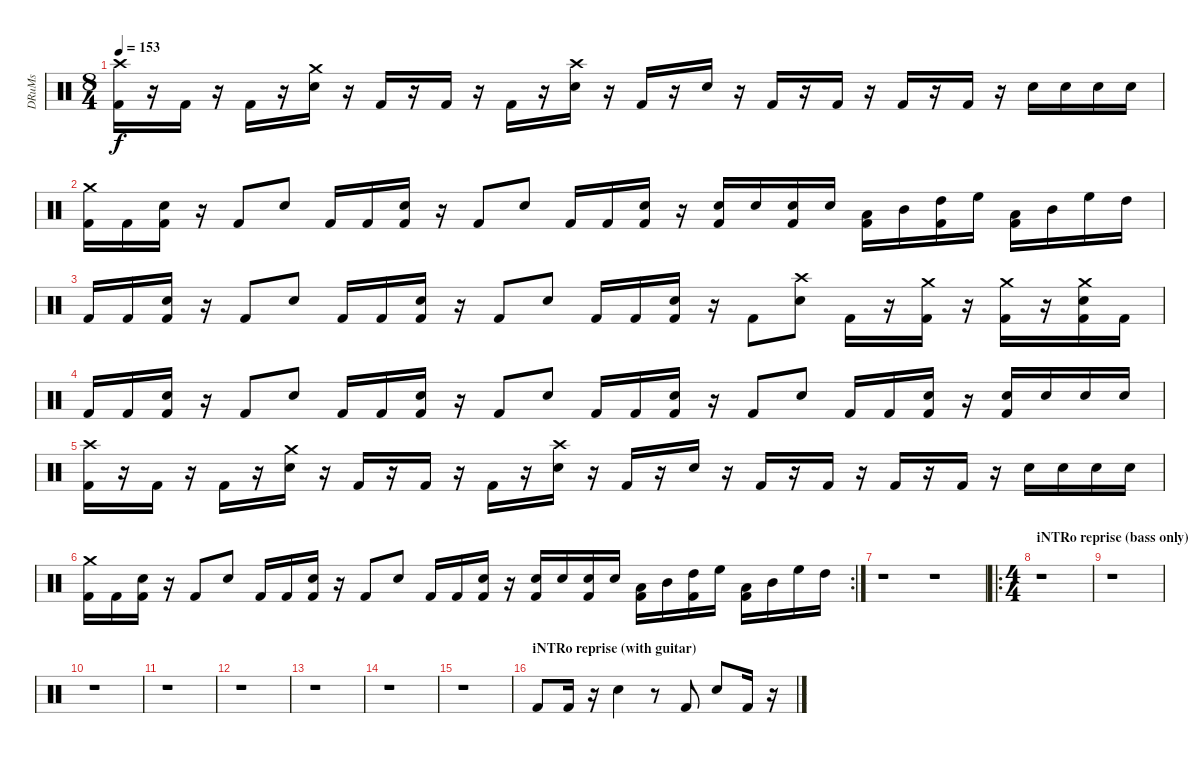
\track ("DRuMs" "DRuMs") {instrument percussion}
\staff {score}
\articulation defaults
\ts (8 4)
\tempo 153
\clef neutral
\ks c
("Crash high (hit)" "Kick (hit) 2").16{dy f} r.16 "Kick (hit) 2".16 r.16 "Kick (hit) 2".16 r.16 ("Crash medium (hit)" "Electric Snare (hit)").16 r.16 "Kick (hit) 2".16 r.16 "Kick (hit) 2".16 r.16 "Kick (hit) 2".16 r.16 ("Crash high (hit)" "Electric Snare (hit)").16 r.16 "Kick (hit) 2".16 r.16 "Electric Snare (hit)".16 r.16 "Kick (hit) 2".16 r.16 "Kick (hit) 2".16 r.16 "Kick (hit) 2".16 r.16 "Kick (hit) 2".16 r.16 "Metronome (bell)".16 "Metronome (bell)".16 "Metronome (bell)".16 "Metronome (bell)".16 |
("Crash medium (hit)" "Kick (hit) 2").16 "Kick (hit) 2".16 ("Electric Snare (hit)" "Kick (hit) 2").16 r.16 "Kick (hit) 2".8 "Electric Snare (hit)".8 "Kick (hit) 2".16 "Kick (hit) 2".16 ("Electric Snare (hit)" "Kick (hit) 2").16 r.16 "Kick (hit) 2".8 "Electric Snare (hit)".8 "Kick (hit) 2".16 "Kick (hit) 2".16 ("Electric Snare (hit)" "Kick (hit) 2").16 r.16 ("Metronome (bell)" "Kick (hit) 2").16 "Metronome (bell)".16 ("Metronome (bell)" "Kick (hit) 2").16 "Metronome (bell)".16 ("Low Tom (hit)" "Kick (hit) 2").16 "Mid Tom (hit)".16 ("High Tom (hit)" "Kick (hit) 2").16 "High Floor Tom (hit)".16 ("Low Tom (hit)" "Kick (hit) 2").16 "Mid Tom (hit)".16 "High Floor Tom (hit)".16 "High Tom (hit)".16 |
"Kick (hit) 2".16 "Kick (hit) 2".16 ("Electric Snare (hit)" "Kick (hit) 2").16 r.16 "Kick (hit) 2".8 "Electric Snare (hit)".8 "Kick (hit) 2".16 "Kick (hit) 2".16 ("Electric Snare (hit)" "Kick (hit) 2").16 r.16 "Kick (hit) 2".8 "Electric Snare (hit)".8 "Kick (hit) 2".16 "Kick (hit) 2".16 ("Electric Snare (hit)" "Kick (hit) 2").16 r.16 "Kick (hit) 2".8 ("Crash high (hit)" "Electric Snare (hit)").8 "Kick (hit) 2".16 r.16 ("Crash medium (hit)" "Kick (hit) 2").16 r.16 ("Crash medium (hit)" "Kick (hit) 2").16 r.16 ("Crash medium (hit)" "Electric Snare (hit)" "Kick (hit) 2").16 "Kick (hit) 2".16 |
"Kick (hit) 2".16 "Kick (hit) 2".16 ("Electric Snare (hit)" "Kick (hit) 2").16 r.16 "Kick (hit) 2".8 "Electric Snare (hit)".8 "Kick (hit) 2".16 "Kick (hit) 2".16 ("Electric Snare (hit)" "Kick (hit) 2").16 r.16 "Kick (hit) 2".8 "Electric Snare (hit)".8 "Kick (hit) 2".16 "Kick (hit) 2".16 ("Electric Snare (hit)" "Kick (hit) 2").16 r.16 "Kick (hit) 2".8 "Electric Snare (hit)".8 "Kick (hit) 2".16 "Kick (hit) 2".16 ("Electric Snare (hit)" "Kick (hit) 2").16 r.16 ("Metronome (bell)" "Kick (hit) 2").16 "Metronome (bell)".16 "Metronome (bell)".16 "Metronome (bell)".16 |
("Crash high (hit)" "Kick (hit) 2").16 r.16 "Kick (hit) 2".16 r.16 "Kick (hit) 2".16 r.16 ("Crash medium (hit)" "Electric Snare (hit)").16 r.16 "Kick (hit) 2".16 r.16 "Kick (hit) 2".16 r.16 "Kick (hit) 2".16 r.16 ("Crash high (hit)" "Electric Snare (hit)").16 r.16 "Kick (hit) 2".16 r.16 "Electric Snare (hit)".16 r.16 "Kick (hit) 2".16 r.16 "Kick (hit) 2".16 r.16 "Kick (hit) 2".16 r.16 "Kick (hit) 2".16 r.16 "Metronome (bell)".16 "Metronome (bell)".16 "Metronome (bell)".16 "Metronome (bell)".16 |
\rc 2
("Crash medium (hit)" "Kick (hit) 2").16 "Kick (hit) 2".16 ("Electric Snare (hit)" "Kick (hit) 2").16 r.16 "Kick (hit) 2".8 "Electric Snare (hit)".8 "Kick (hit) 2".16 "Kick (hit) 2".16 ("Electric Snare (hit)" "Kick (hit) 2").16 r.16 "Kick (hit) 2".8 "Electric Snare (hit)".8 "Kick (hit) 2".16 "Kick (hit) 2".16 ("Electric Snare (hit)" "Kick (hit) 2").16 r.16 ("Metronome (bell)" "Kick (hit) 2").16 "Metronome (bell)".16 ("Metronome (bell)" "Kick (hit) 2").16 "Metronome (bell)".16 ("Low Tom (hit)" "Kick (hit) 2").16 "Mid Tom (hit)".16 ("High Tom (hit)" "Kick (hit) 2").16 "High Floor Tom (hit)".16 ("Low Tom (hit)" "Kick (hit) 2").16 "Mid Tom (hit)".16 "High Floor Tom (hit)".16 "High Tom (hit)".16 |
r.1 r.1 |
\ro
\ts (4 4)
\section ("" "iNTRo reprise (bass only)")
r.1 |
r.1 |
r.1 |
r.1 |
r.1 |
r.1 |
r.1 |
r.1 |
\section ("" "iNTRo reprise (with guitar)")
"Kick (hit) 2".8 "Kick (hit) 2".16 r.16 "Electric Snare (hit)".4 r.8 "Kick (hit) 2".8 "Electric Snare (hit)".8 "Kick (hit) 2".16 r.16
